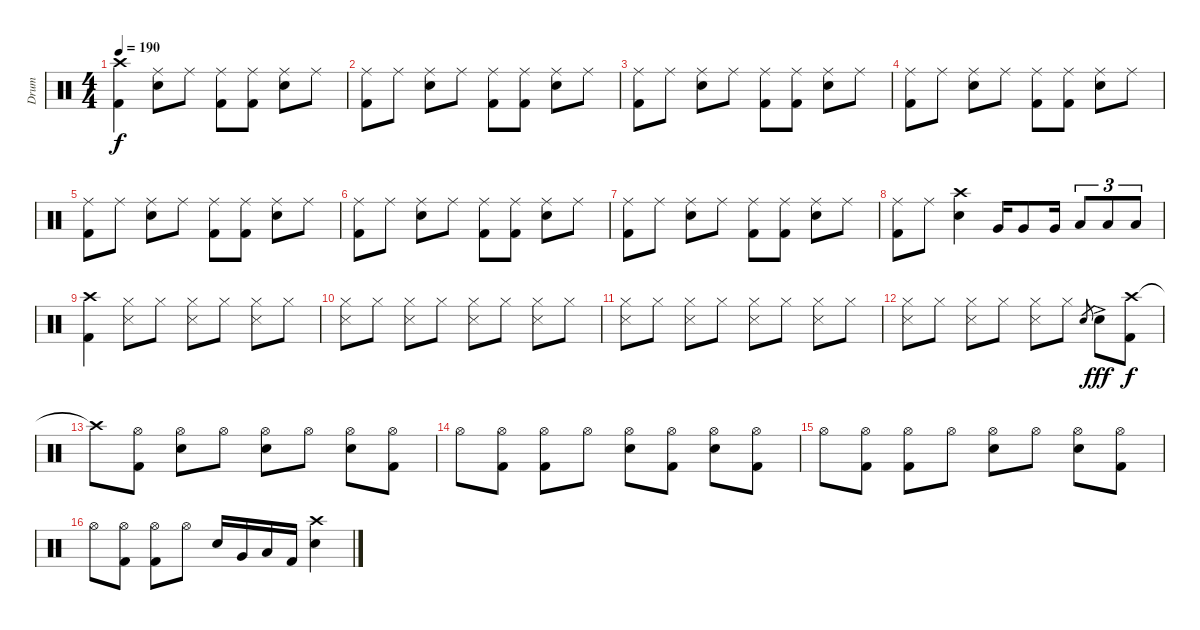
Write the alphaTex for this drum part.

\track ("Drum" "Drum") {instrument percussion}
\staff {score}
\articulation defaults
\ts (4 4)
\tempo 190
\clef neutral
\ks c
("Crash high (hit)" "Kick (hit) 2").4{dy f} ("Ride (middle)" "Electric Snare (hit)").8 "Ride (middle)".8 ("Ride (middle)" "Kick (hit) 2").8 ("Ride (middle)" "Kick (hit) 2").8 ("Ride (middle)" "Electric Snare (hit)").8 "Ride (middle)".8 |
("Ride (middle)" "Kick (hit) 2").8 "Ride (middle)".8 ("Ride (middle)" "Electric Snare (hit)").8 "Ride (middle)".8 ("Ride (middle)" "Kick (hit) 2").8 ("Ride (middle)" "Kick (hit) 2").8 ("Ride (middle)" "Electric Snare (hit)").8 "Ride (middle)".8 |
("Ride (middle)" "Kick (hit) 2").8 "Ride (middle)".8 ("Ride (middle)" "Electric Snare (hit)").8 "Ride (middle)".8 ("Ride (middle)" "Kick (hit) 2").8 ("Ride (middle)" "Kick (hit) 2").8 ("Ride (middle)" "Electric Snare (hit)").8 "Ride (middle)".8 |
("Ride (middle)" "Kick (hit) 2").8 "Ride (middle)".8 ("Ride (middle)" "Electric Snare (hit)").8 "Ride (middle)".8 ("Ride (middle)" "Kick (hit) 2").8 ("Ride (middle)" "Kick (hit) 2").8 ("Ride (middle)" "Electric Snare (hit)").8 "Ride (middle)".8 |
("Ride (middle)" "Kick (hit) 2").8 "Ride (middle)".8 ("Ride (middle)" "Electric Snare (hit)").8 "Ride (middle)".8 ("Ride (middle)" "Kick (hit) 2").8 ("Ride (middle)" "Kick (hit) 2").8 ("Ride (middle)" "Electric Snare (hit)").8 "Ride (middle)".8 |
("Ride (middle)" "Kick (hit) 2").8 "Ride (middle)".8 ("Ride (middle)" "Electric Snare (hit)").8 "Ride (middle)".8 ("Ride (middle)" "Kick (hit) 2").8 ("Ride (middle)" "Kick (hit) 2").8 ("Ride (middle)" "Electric Snare (hit)").8 "Ride (middle)".8 |
("Ride (middle)" "Kick (hit) 2").8 "Ride (middle)".8 ("Ride (middle)" "Electric Snare (hit)").8 "Ride (middle)".8 ("Ride (middle)" "Kick (hit) 2").8 ("Ride (middle)" "Kick (hit) 2").8 ("Ride (middle)" "Electric Snare (hit)").8 "Ride (middle)".8 |
("Ride (middle)" "Kick (hit) 2").8 "Ride (middle)".8 ("Crash high (hit)" "Electric Snare (hit)").4 "Very Low Tom (hit)".16 "Very Low Tom (hit)".8 "Very Low Tom (hit)".16 "Low Floor Tom (hit)".8{tu (3 2)} "Low Floor Tom (hit)".8{tu (3 2)} "Low Floor Tom (hit)".8{tu (3 2)} |
("Crash high (hit)" "Kick (hit) 2").4 ("Hi-Hat (closed)" "Snare (side stick) 3").8 "Hi-Hat (closed)".8 ("Hi-Hat (closed)" "Snare (side stick) 3").8 "Hi-Hat (closed)".8 ("Hi-Hat (closed)" "Snare (side stick) 3").8 "Hi-Hat (closed)".8 |
("Hi-Hat (closed)" "Snare (side stick) 3").8 "Hi-Hat (closed)".8 ("Hi-Hat (closed)" "Snare (side stick) 3").8 "Hi-Hat (closed)".8 ("Hi-Hat (closed)" "Snare (side stick) 3").8 "Hi-Hat (closed)".8 ("Hi-Hat (closed)" "Snare (side stick) 3").8 "Hi-Hat (closed)".8 |
("Hi-Hat (closed)" "Snare (side stick) 3").8 "Hi-Hat (closed)".8 ("Hi-Hat (closed)" "Snare (side stick) 3").8 "Hi-Hat (closed)".8 ("Hi-Hat (closed)" "Snare (side stick) 3").8 "Hi-Hat (closed)".8 ("Hi-Hat (closed)" "Snare (side stick) 3").8 "Hi-Hat (closed)".8 |
("Hi-Hat (closed)" "Snare (side stick) 3").8 "Hi-Hat (closed)".8 ("Hi-Hat (closed)" "Snare (side stick) 3").8 "Hi-Hat (closed)".8 ("Hi-Hat (closed)" "Snare (side stick) 3").8 "Hi-Hat (closed)".8 "Electric Snare (hit)".8{gr} "Electric Snare (hit)"{ac}.8{dy fff} ("Crash high (hit)" "Kick (hit) 2").8{dy f} |
"Crash high (hit)"{t}.8 ("Hi-Hat (open)" "Kick (hit) 2").8 ("Hi-Hat (open)" "Electric Snare (hit)").8 "Hi-Hat (open)".8 ("Hi-Hat (open)" "Electric Snare (hit)").8 "Hi-Hat (open)".8 ("Hi-Hat (open)" "Electric Snare (hit)").8 ("Hi-Hat (open)" "Kick (hit) 2").8 |
"Hi-Hat (open)".8 ("Hi-Hat (open)" "Kick (hit) 2").8 ("Hi-Hat (open)" "Kick (hit) 2").8 "Hi-Hat (open)".8 ("Hi-Hat (open)" "Electric Snare (hit)").8 ("Hi-Hat (open)" "Kick (hit) 2").8 ("Hi-Hat (open)" "Electric Snare (hit)").8 ("Hi-Hat (open)" "Kick (hit) 2").8 |
"Hi-Hat (open)".8 ("Hi-Hat (open)" "Kick (hit) 2").8 ("Hi-Hat (open)" "Kick (hit) 2").8 "Hi-Hat (open)".8 ("Hi-Hat (open)" "Electric Snare (hit)").8 "Hi-Hat (open)".8 ("Hi-Hat (open)" "Electric Snare (hit)").8 ("Hi-Hat (open)" "Kick (hit) 2").8 |
"Hi-Hat (open)".8 ("Hi-Hat (open)" "Kick (hit) 2").8 ("Hi-Hat (open)" "Kick (hit) 2").8 "Hi-Hat (open)".8 "Electric Snare (hit)".16 "Very Low Tom (hit)".16 "Low Floor Tom (hit)".16 "Kick (hit) 2".16 ("Crash high (hit)" "Electric Snare (hit)").4
